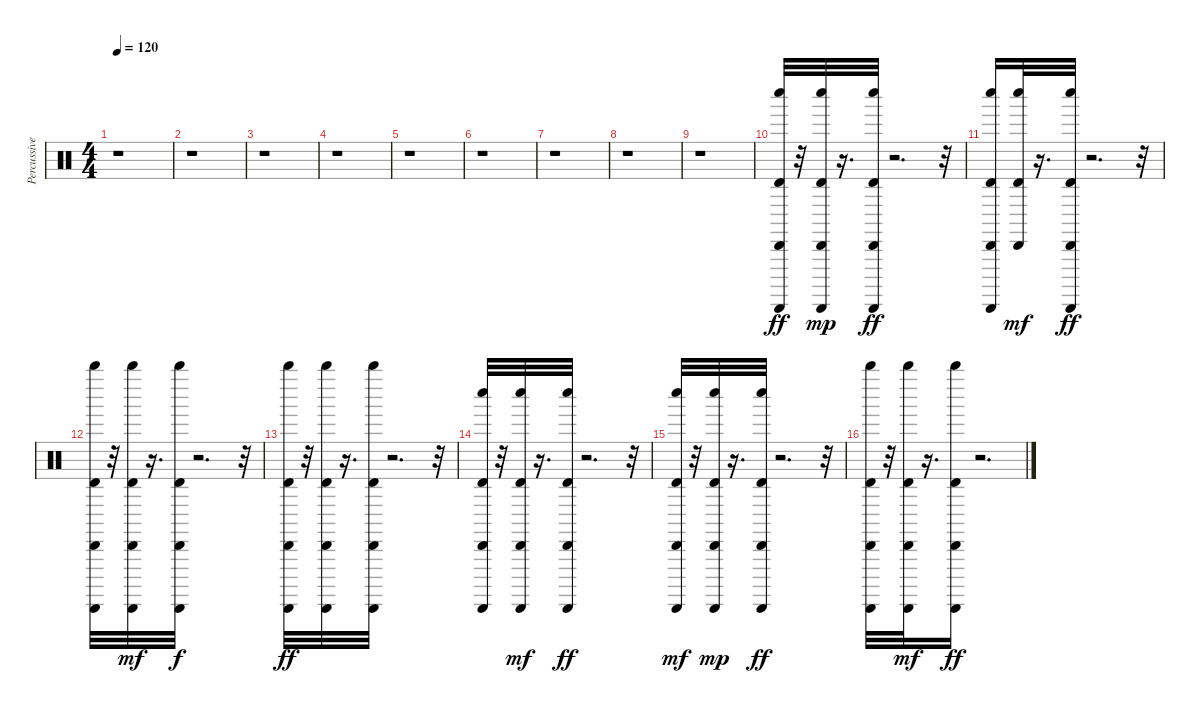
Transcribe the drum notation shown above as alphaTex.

\track ("Percussive Organ" "Percussive") {instrument percussion}
\staff {score}
\articulation defaults
\ts (4 4)
\tempo 120
\clef neutral
\ks c
r.1{dy ff} |
r.1 |
r.1 |
r.1 |
r.1 |
r.1 |
r.1 |
r.1 |
r.1 |
("Whistle low (hit)" "Cabasa (hit)" "Timbale high (hit)" "Guiro (scrap-return)").32 r.32 ("Timbale high (hit)" "Whistle low (hit)" "Cabasa (hit)" "Guiro (scrap-return)").32{dy mp} r.16{d} ("Whistle low (hit)" "Cabasa (hit)" "Timbale high (hit)" "Guiro (scrap-return)").32{dy ff} r.2{d} r.32 |
("Whistle low (hit)" "Cabasa (hit)" "Timbale high (hit)" "Guiro (scrap-return)").16 ("Timbale high (hit)" "Whistle low (hit)" "Cabasa (hit)").32{dy mf} r.16{d} ("Guiro (scrap-return)" "Whistle low (hit)" "Timbale high (hit)" "Cabasa (hit)").32{dy ff} r.2{d} r.32 |
("Whistle high (hit)" "Cabasa (hit)" "Timbale high (hit)" "Guiro (scrap-return)").32 r.32 ("Timbale high (hit)" "Guiro (scrap-return)" "Whistle high (hit)" "Cabasa (hit)").32{dy mf} r.16{d} ("Cabasa (hit)" "Whistle high (hit)" "Timbale high (hit)" "Guiro (scrap-return)").32{dy f} r.2{d} r.32 |
("Whistle high (hit)" "Cabasa (hit)" "Timbale high (hit)" "Guiro (scrap-return)").32{dy ff} r.32 ("Timbale high (hit)" "Guiro (scrap-return)" "Cabasa (hit)" "Whistle high (hit)").32 r.16{d} ("Cabasa (hit)" "Whistle high (hit)" "Timbale high (hit)" "Guiro (scrap-return)").32 r.2{d} r.32 |
("Cabasa (hit)" "Whistle low (hit)" "Timbale high (hit)" "Guiro (scrap-return)").32 r.32 ("Guiro (scrap-return)" "Whistle low (hit)" "Timbale high (hit)" "Cabasa (hit)").32{dy mf} r.16{d} ("Whistle low (hit)" "Cabasa (hit)" "Timbale high (hit)" "Guiro (scrap-return)").32{dy ff} r.2{d} r.32 |
("Whistle low (hit)" "Cabasa (hit)" "Timbale high (hit)" "Guiro (scrap-return)").32{dy mf} r.32 ("Timbale high (hit)" "Guiro (scrap-return)" "Whistle low (hit)" "Cabasa (hit)").32{dy mp} r.16{d} ("Whistle low (hit)" "Cabasa (hit)" "Guiro (scrap-return)" "Timbale high (hit)").32{dy ff} r.2{d} r.32 |
("Whistle high (hit)" "Cabasa (hit)" "Timbale high (hit)" "Guiro (scrap-return)").32 r.32 ("Timbale high (hit)" "Cabasa (hit)" "Whistle high (hit)" "Guiro (scrap-return)").32{dy mf} r.16{d} ("Whistle high (hit)" "Cabasa (hit)" "Timbale high (hit)" "Guiro (scrap-return)").16{dy ff} r.2{d}
